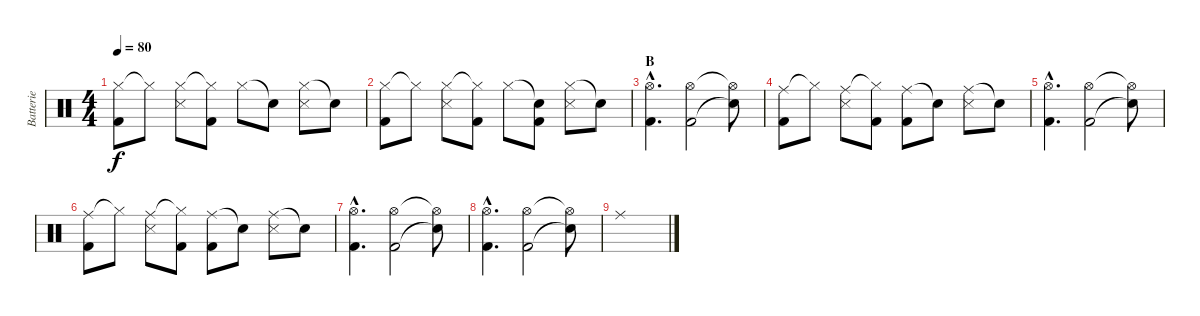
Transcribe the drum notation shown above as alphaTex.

\track ("Batterie" "Batterie") {instrument percussion}
\staff {score}
\articulation defaults
\ts (4 4)
\tempo 80
\clef neutral
\ks c
("Hi-Hat (closed)" "Kick (hit) 2").8{dy f} "Hi-Hat (closed)"{t}.8 ("Hi-Hat (closed)" "Snare (side stick) 3").8 ("Hi-Hat (closed)"{t} "Kick (hit) 2").8 "Hi-Hat (closed)".8 "Snare (hit)"{t}.8 ("Hi-Hat (closed)" "Snare (side stick) 3").8 "Snare (hit)"{t}.8 |
("Hi-Hat (closed)" "Kick (hit) 2").8 "Hi-Hat (closed)"{t}.8 ("Hi-Hat (closed)" "Snare (side stick) 3").8 ("Hi-Hat (closed)"{t} "Kick (hit) 2").8 "Hi-Hat (closed)".8 ("Snare (hit)"{t} "Kick (hit) 2").8 ("Hi-Hat (closed)" "Snare (side stick) 3").8 "Snare (hit)"{t}.8 |
\section ("" "B")
("Hi-Hat (open)"{hac} "Kick (hit) 2"{hac}).4{d} ("Hi-Hat (open)" "Kick (hit) 2").2 ("Hi-Hat (open)"{t} "Snare (hit)"{t}).8 |
("Ride (middle)" "Kick (hit) 2").8 "Hi-Hat (closed)"{t}.8 ("Ride (middle)" "Snare (side stick) 3").8 ("Hi-Hat (closed)"{t} "Kick (hit) 2").8 ("Ride (middle)" "Kick (hit) 2").8 "Snare (hit)"{t}.8 ("Ride (middle)" "Snare (side stick) 3").8 "Snare (hit)"{t}.8 |
("Hi-Hat (open)"{hac} "Kick (hit) 2"{hac}).4{d} ("Hi-Hat (open)" "Kick (hit) 2").2 ("Hi-Hat (open)"{t} "Snare (hit)"{t}).8 |
("Ride (middle)" "Kick (hit) 2").8 "Hi-Hat (closed)"{t}.8 ("Ride (middle)" "Snare (side stick) 3").8 ("Hi-Hat (closed)"{t} "Kick (hit) 2").8 ("Ride (middle)" "Kick (hit) 2").8 "Snare (hit)"{t}.8 ("Ride (middle)" "Snare (side stick) 3").8 "Snare (hit)"{t}.8 |
("Hi-Hat (open)"{hac} "Kick (hit) 2"{hac}).4{d} ("Hi-Hat (open)" "Kick (hit) 2").2 ("Hi-Hat (open)"{t} "Snare (hit)"{t}).8 |
("Hi-Hat (open)"{hac} "Kick (hit) 2"{hac}).4{d} ("Hi-Hat (open)" "Kick (hit) 2").2 ("Hi-Hat (open)"{t} "Snare (hit)"{t}).8 |
"Ride (middle)".1
